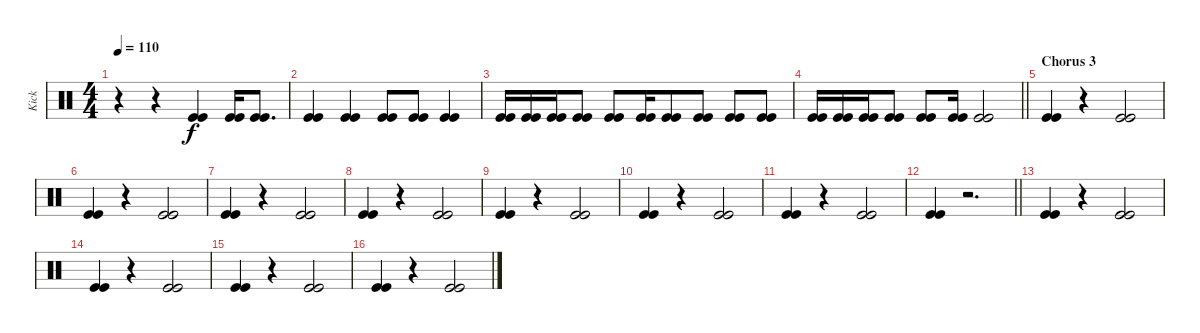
\track ("Kick" "Kick") {instrument percussion}
\staff {score}
\articulation defaults
\ts (4 4)
\tempo 110
\clef neutral
\ks c
r.4{dy f} r.4 ("Kick (hit)" "Kick (hit)").4{beam merge} ("Kick (hit)" "Kick (hit)").16 ("Kick (hit)" "Kick (hit)").8{d} |
("Kick (hit)" "Kick (hit)").4{beam merge} ("Kick (hit)" "Kick (hit)").4{beam merge} ("Kick (hit)" "Kick (hit)").8 ("Kick (hit)" "Kick (hit)").8 ("Kick (hit)" "Kick (hit)").4 |
("Kick (hit)" "Kick (hit)").16 ("Kick (hit)" "Kick (hit)").16 ("Kick (hit)" "Kick (hit)").16 ("Kick (hit)" "Kick (hit)").8 ("Kick (hit)" "Kick (hit)").8{beam merge} ("Kick (hit)" "Kick (hit)").16{beam merge} ("Kick (hit)" "Kick (hit)").8{beam merge} ("Kick (hit)" "Kick (hit)").8 ("Kick (hit)" "Kick (hit)").8 ("Kick (hit)" "Kick (hit)").8 |
\barLineRight lightlight
("Kick (hit)" "Kick (hit)").16 ("Kick (hit)" "Kick (hit)").16 ("Kick (hit)" "Kick (hit)").16{beam merge} ("Kick (hit)" "Kick (hit)").8 ("Kick (hit)" "Kick (hit)").8{beam merge} ("Kick (hit)" "Kick (hit)").16 ("Kick (hit)" "Kick (hit)").2 |
\section ("" "Chorus 3")
("Kick (hit)" "Kick (hit)").4 r.4 ("Kick (hit)" "Kick (hit)").2 |
("Kick (hit)" "Kick (hit)").4 r.4 ("Kick (hit)" "Kick (hit)").2 |
("Kick (hit)" "Kick (hit)").4 r.4 ("Kick (hit)" "Kick (hit)").2 |
("Kick (hit)" "Kick (hit)").4 r.4 ("Kick (hit)" "Kick (hit)").2 |
("Kick (hit)" "Kick (hit)").4 r.4 ("Kick (hit)" "Kick (hit)").2 |
("Kick (hit)" "Kick (hit)").4 r.4 ("Kick (hit)" "Kick (hit)").2 |
("Kick (hit)" "Kick (hit)").4 r.4 ("Kick (hit)" "Kick (hit)").2 |
\barLineRight lightlight
("Kick (hit)" "Kick (hit)").4 r.2{d} |
("Kick (hit)" "Kick (hit)").4 r.4 ("Kick (hit)" "Kick (hit)").2 |
("Kick (hit)" "Kick (hit)").4 r.4 ("Kick (hit)" "Kick (hit)").2 |
("Kick (hit)" "Kick (hit)").4 r.4 ("Kick (hit)" "Kick (hit)").2 |
("Kick (hit)" "Kick (hit)").4 r.4 ("Kick (hit)" "Kick (hit)").2
